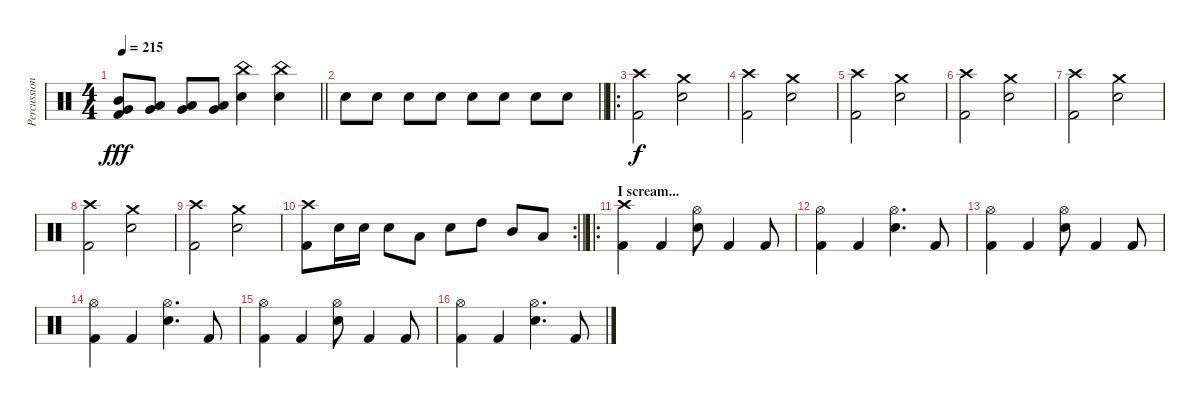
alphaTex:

\track ("Percussions" "Percussion") {instrument percussion}
\staff {score}
\articulation defaults
\ts (4 4)
\tempo 215
\clef neutral
\barLineRight lightlight
\ks c
("Very Low Tom (hit)" "Mid Tom (hit)" "Kick (hit) 2").8{dy fff} ("Very Low Tom (hit)" "Low Tom (hit)").8 ("Low Floor Tom (hit)" "Very Low Tom (hit)").8 ("Low Floor Tom (hit)" "Very Low Tom (hit)").8 ("China (hit)" "Electric Snare (hit)").4 ("China (hit)" "Electric Snare (hit)").4 |
\barLineRight lightlight "Electric Snare (hit)".8 "Electric Snare (hit)".8 "Electric Snare (hit)".8 "Electric Snare (hit)".8 "Electric Snare (hit)".8 "Electric Snare (hit)".8 "Electric Snare (hit)".8 "Electric Snare (hit)".8
|
\ro
\section ("" "")
("Crash high (hit)" "Kick (hit) 2").2{dy f} ("Crash medium (hit)" "Electric Snare (hit)").2 |
("Crash high (hit)" "Kick (hit) 2").2 ("Crash medium (hit)" "Electric Snare (hit)").2 |
("Crash high (hit)" "Kick (hit) 2").2 ("Crash medium (hit)" "Electric Snare (hit)").2 |
("Crash high (hit)" "Kick (hit) 2").2 ("Crash medium (hit)" "Electric Snare (hit)").2 |
("Crash high (hit)" "Kick (hit) 2").2 ("Crash medium (hit)" "Electric Snare (hit)").2 |
("Crash high (hit)" "Kick (hit) 2").2 ("Crash medium (hit)" "Electric Snare (hit)").2 |
("Crash high (hit)" "Kick (hit) 2").2 ("Crash medium (hit)" "Electric Snare (hit)").2 |
\rc 2
\barLineRight lightlight
("Crash high (hit)" "Kick (hit) 2").8 "Electric Snare (hit)".16 "Electric Snare (hit)".16 "Electric Snare (hit)".8 "Low Tom (hit)".8 "Electric Snare (hit)".8 "High Tom (hit)".8 "Mid Tom (hit)".8 "Low Tom (hit)".8 |
\ro
\section ("" "I scream...")
("Crash high (hit)" "Kick (hit) 2").4 "Kick (hit) 2".4 ("Hi-Hat (open)" "Electric Snare (hit)").8 "Kick (hit) 2".4 "Kick (hit) 2".8 |
("Hi-Hat (open)" "Kick (hit) 2").4 "Kick (hit) 2".4 ("Hi-Hat (open)" "Electric Snare (hit)").4{d} "Kick (hit) 2".8 |
("Hi-Hat (open)" "Kick (hit) 2").4 "Kick (hit) 2".4 ("Hi-Hat (open)" "Electric Snare (hit)").8 "Kick (hit) 2".4 "Kick (hit) 2".8 |
("Hi-Hat (open)" "Kick (hit) 2").4 "Kick (hit) 2".4 ("Hi-Hat (open)" "Electric Snare (hit)").4{d} "Kick (hit) 2".8 |
("Hi-Hat (open)" "Kick (hit) 2").4 "Kick (hit) 2".4 ("Hi-Hat (open)" "Electric Snare (hit)").8 "Kick (hit) 2".4 "Kick (hit) 2".8 |
("Hi-Hat (open)" "Kick (hit) 2").4 "Kick (hit) 2".4 ("Hi-Hat (open)" "Electric Snare (hit)").4{d} "Kick (hit) 2".8
